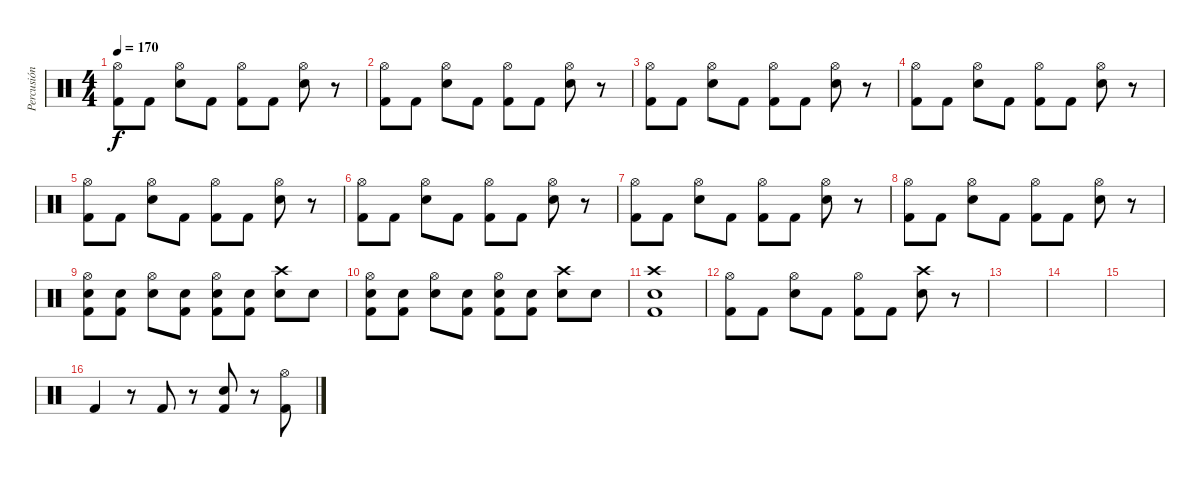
\track ("Percusión" "Percusión") {instrument percussion}
\staff {score}
\articulation defaults
\ts (4 4)
\tempo 170
\clef neutral
\ks c
("Hi-Hat (open)" "Kick (hit) 2").8{dy f} "Kick (hit) 2".8 ("Hi-Hat (open)" "Snare (hit) 2").8 "Kick (hit) 2".8 ("Hi-Hat (open)" "Kick (hit) 2").8 "Kick (hit) 2".8 ("Hi-Hat (open)" "Snare (hit) 2").8 r.8 |
("Hi-Hat (open)" "Kick (hit) 2").8 "Kick (hit) 2".8 ("Hi-Hat (open)" "Snare (hit) 2").8 "Kick (hit) 2".8 ("Hi-Hat (open)" "Kick (hit) 2").8 "Kick (hit) 2".8 ("Hi-Hat (open)" "Snare (hit) 2").8 r.8 |
("Hi-Hat (open)" "Kick (hit) 2").8 "Kick (hit) 2".8 ("Hi-Hat (open)" "Snare (hit) 2").8 "Kick (hit) 2".8 ("Hi-Hat (open)" "Kick (hit) 2").8 "Kick (hit) 2".8 ("Hi-Hat (open)" "Snare (hit) 2").8 r.8 |
("Hi-Hat (open)" "Kick (hit) 2").8 "Kick (hit) 2".8 ("Hi-Hat (open)" "Snare (hit) 2").8 "Kick (hit) 2".8 ("Hi-Hat (open)" "Kick (hit) 2").8 "Kick (hit) 2".8 ("Hi-Hat (open)" "Snare (hit) 2").8 r.8 |
("Hi-Hat (open)" "Kick (hit) 2").8 "Kick (hit) 2".8 ("Hi-Hat (open)" "Snare (hit) 2").8 "Kick (hit) 2".8 ("Hi-Hat (open)" "Kick (hit) 2").8 "Kick (hit) 2".8 ("Hi-Hat (open)" "Snare (hit) 2").8 r.8 |
("Hi-Hat (open)" "Kick (hit) 2").8 "Kick (hit) 2".8 ("Hi-Hat (open)" "Snare (hit) 2").8 "Kick (hit) 2".8 ("Hi-Hat (open)" "Kick (hit) 2").8 "Kick (hit) 2".8 ("Hi-Hat (open)" "Snare (hit) 2").8 r.8 |
("Hi-Hat (open)" "Kick (hit) 2").8 "Kick (hit) 2".8 ("Hi-Hat (open)" "Snare (hit) 2").8 "Kick (hit) 2".8 ("Hi-Hat (open)" "Kick (hit) 2").8 "Kick (hit) 2".8 ("Hi-Hat (open)" "Snare (hit) 2").8 r.8 |
("Hi-Hat (open)" "Kick (hit) 2").8 "Kick (hit) 2".8 ("Hi-Hat (open)" "Snare (hit) 2").8 "Kick (hit) 2".8 ("Hi-Hat (open)" "Kick (hit) 2").8 "Kick (hit) 2".8 ("Hi-Hat (open)" "Snare (hit) 2").8 r.8 |
("Hi-Hat (open)" "Snare (hit) 2" "Kick (hit) 2").8 ("Snare (hit) 2" "Kick (hit) 2").8 ("Hi-Hat (open)" "Snare (hit) 2").8 ("Snare (hit) 2" "Kick (hit) 2").8 ("Hi-Hat (open)" "Snare (hit) 2" "Kick (hit) 2").8 ("Snare (hit) 2" "Kick (hit) 2").8 ("Crash high (hit)" "Snare (hit) 2").8 "Snare (hit) 2".8 |
("Hi-Hat (open)" "Snare (hit) 2" "Kick (hit) 2").8 ("Snare (hit) 2" "Kick (hit) 2").8 ("Hi-Hat (open)" "Snare (hit) 2").8 ("Snare (hit) 2" "Kick (hit) 2").8 ("Hi-Hat (open)" "Snare (hit) 2" "Kick (hit) 2").8 ("Snare (hit) 2" "Kick (hit) 2").8 ("Crash high (hit)" "Snare (hit) 2").8 "Snare (hit) 2".8 |
("Crash high (hit)" "Snare (hit) 2" "Kick (hit) 2").1 |
("Hi-Hat (open)" "Kick (hit) 2").8 "Kick (hit) 2".8 ("Hi-Hat (open)" "Snare (hit) 2").8 "Kick (hit) 2".8 ("Hi-Hat (open)" "Kick (hit) 2").8 "Kick (hit) 2".8 ("Crash high (hit)" "Snare (hit) 2").8 r.8 |
|
|
|
"Kick (hit) 2".4 r.8 "Kick (hit) 2".8 r.8 ("Snare (hit) 2" "Kick (hit) 2").8 r.8 ("Hi-Hat (open)" "Kick (hit) 2").8
